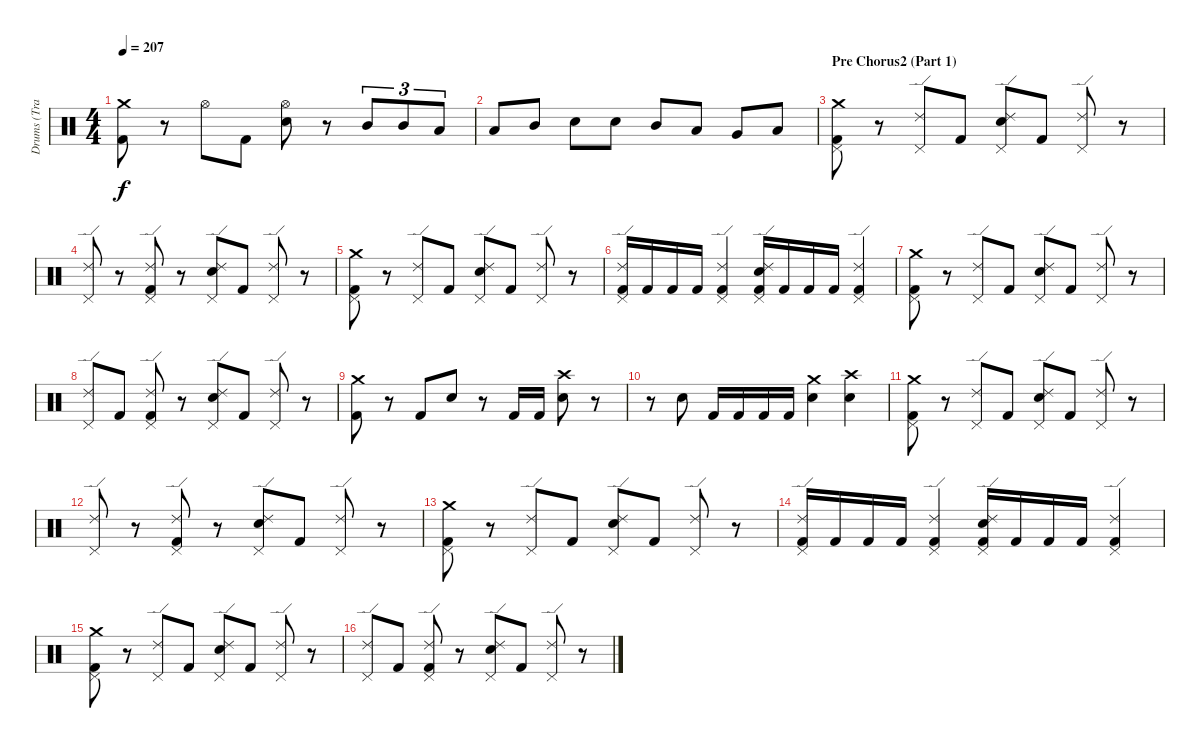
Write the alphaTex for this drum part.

\track ("Drums (Travis)" "Drums (Tra") {instrument percussion}
\staff {score}
\articulation defaults
\ts (4 4)
\tempo 207
\clef neutral
\ks c
("Crash medium (hit)" "Kick (hit) 2").8{dy f} r.8 "Hi-Hat (open)".8 "Kick (hit) 2".8 ("Hi-Hat (open)" "Snare (hit) 2").8 r.8 "Mid Tom (hit)".8{tu (3 2)} "Mid Tom (hit)".8{tu (3 2)} "Low Tom (hit)".8{tu (3 2)} |
"Low Tom (hit)".8 "Mid Tom (hit)".8 "Snare (hit) 2".8 "Snare (hit) 2".8 "Mid Tom (hit)".8 "Low Tom (hit)".8 "Very Low Tom (hit)".8 "Low Floor Tom (hit)".8 |
\section ("" "Pre Chorus2 (Part 1)")
("Crash medium (hit)" "Pedal Hi-Hat (hit)" "Kick (hit) 2").8 r.8 ("Ride (edge) 2" "Pedal Hi-Hat (hit)").8 "Kick (hit) 2".8 ("Ride (edge) 2" "Pedal Hi-Hat (hit)" "Snare (hit) 2").8 "Kick (hit) 2".8 ("Ride (edge) 2" "Pedal Hi-Hat (hit)").8 r.8 |
("Ride (edge) 2" "Pedal Hi-Hat (hit)").8 r.8 ("Ride (edge) 2" "Pedal Hi-Hat (hit)" "Kick (hit) 2").8 r.8 ("Ride (edge) 2" "Pedal Hi-Hat (hit)" "Snare (hit) 2").8 "Kick (hit) 2".8 ("Ride (edge) 2" "Pedal Hi-Hat (hit)").8 r.8 |
("Crash medium (hit)" "Pedal Hi-Hat (hit)" "Kick (hit) 2").8 r.8 ("Ride (edge) 2" "Pedal Hi-Hat (hit)").8 "Kick (hit) 2".8 ("Ride (edge) 2" "Pedal Hi-Hat (hit)" "Snare (hit) 2").8 "Kick (hit) 2".8 ("Ride (edge) 2" "Pedal Hi-Hat (hit)").8 r.8 |
("Ride (edge) 2" "Pedal Hi-Hat (hit)" "Kick (hit) 2").16 "Kick (hit) 2".16 "Kick (hit) 2".16 "Kick (hit) 2".16 ("Ride (edge) 2" "Pedal Hi-Hat (hit)" "Kick (hit) 2").4 ("Ride (edge) 2" "Pedal Hi-Hat (hit)" "Snare (hit) 2" "Kick (hit) 2").16 "Kick (hit) 2".16 "Kick (hit) 2".16 "Kick (hit) 2".16 ("Ride (edge) 2" "Pedal Hi-Hat (hit)" "Kick (hit) 2").4 |
("Crash medium (hit)" "Pedal Hi-Hat (hit)" "Kick (hit) 2").8 r.8 ("Ride (edge) 2" "Pedal Hi-Hat (hit)").8 "Kick (hit) 2".8 ("Ride (edge) 2" "Pedal Hi-Hat (hit)" "Snare (hit) 2").8 "Kick (hit) 2".8 ("Ride (edge) 2" "Pedal Hi-Hat (hit)").8 r.8 |
("Ride (edge) 2" "Pedal Hi-Hat (hit)").8 "Kick (hit) 2".8 ("Ride (edge) 2" "Pedal Hi-Hat (hit)" "Kick (hit) 2").8 r.8 ("Ride (edge) 2" "Pedal Hi-Hat (hit)" "Snare (hit) 2").8 "Kick (hit) 2".8 ("Ride (edge) 2" "Pedal Hi-Hat (hit)").8 r.8 |
("Crash medium (hit)" "Kick (hit) 2").8 r.8 "Kick (hit) 2".8 "Snare (hit) 2".8 r.8 "Kick (hit) 2".16 "Kick (hit) 2".16 ("Crash high (hit)" "Snare (hit) 2").8 r.8 |
r.8 "Snare (hit) 2".8 "Kick (hit) 2".16 "Kick (hit) 2".16 "Kick (hit) 2".16 "Kick (hit) 2".16 ("Crash medium (hit)" "Snare (hit) 2").4 ("Crash high (hit)" "Snare (hit) 2").4 |
("Crash medium (hit)" "Pedal Hi-Hat (hit)" "Kick (hit) 2").8 r.8 ("Ride (edge) 2" "Pedal Hi-Hat (hit)").8 "Kick (hit) 2".8 ("Ride (edge) 2" "Pedal Hi-Hat (hit)" "Snare (hit) 2").8 "Kick (hit) 2".8 ("Ride (edge) 2" "Pedal Hi-Hat (hit)").8 r.8 |
("Ride (edge) 2" "Pedal Hi-Hat (hit)").8 r.8 ("Ride (edge) 2" "Pedal Hi-Hat (hit)" "Kick (hit) 2").8 r.8 ("Ride (edge) 2" "Pedal Hi-Hat (hit)" "Snare (hit) 2").8 "Kick (hit) 2".8 ("Ride (edge) 2" "Pedal Hi-Hat (hit)").8 r.8 |
("Crash medium (hit)" "Pedal Hi-Hat (hit)" "Kick (hit) 2").8 r.8 ("Ride (edge) 2" "Pedal Hi-Hat (hit)").8 "Kick (hit) 2".8 ("Ride (edge) 2" "Pedal Hi-Hat (hit)" "Snare (hit) 2").8 "Kick (hit) 2".8 ("Ride (edge) 2" "Pedal Hi-Hat (hit)").8 r.8 |
("Ride (edge) 2" "Pedal Hi-Hat (hit)" "Kick (hit) 2").16 "Kick (hit) 2".16 "Kick (hit) 2".16 "Kick (hit) 2".16 ("Ride (edge) 2" "Pedal Hi-Hat (hit)" "Kick (hit) 2").4 ("Ride (edge) 2" "Pedal Hi-Hat (hit)" "Snare (hit) 2" "Kick (hit) 2").16 "Kick (hit) 2".16 "Kick (hit) 2".16 "Kick (hit) 2".16 ("Ride (edge) 2" "Pedal Hi-Hat (hit)" "Kick (hit) 2").4 |
("Crash medium (hit)" "Pedal Hi-Hat (hit)" "Kick (hit) 2").8 r.8 ("Ride (edge) 2" "Pedal Hi-Hat (hit)").8 "Kick (hit) 2".8 ("Ride (edge) 2" "Pedal Hi-Hat (hit)" "Snare (hit) 2").8 "Kick (hit) 2".8 ("Ride (edge) 2" "Pedal Hi-Hat (hit)").8 r.8 |
("Ride (edge) 2" "Pedal Hi-Hat (hit)").8 "Kick (hit) 2".8 ("Ride (edge) 2" "Pedal Hi-Hat (hit)" "Kick (hit) 2").8 r.8 ("Ride (edge) 2" "Pedal Hi-Hat (hit)" "Snare (hit) 2").8 "Kick (hit) 2".8 ("Ride (edge) 2" "Pedal Hi-Hat (hit)").8 r.8
